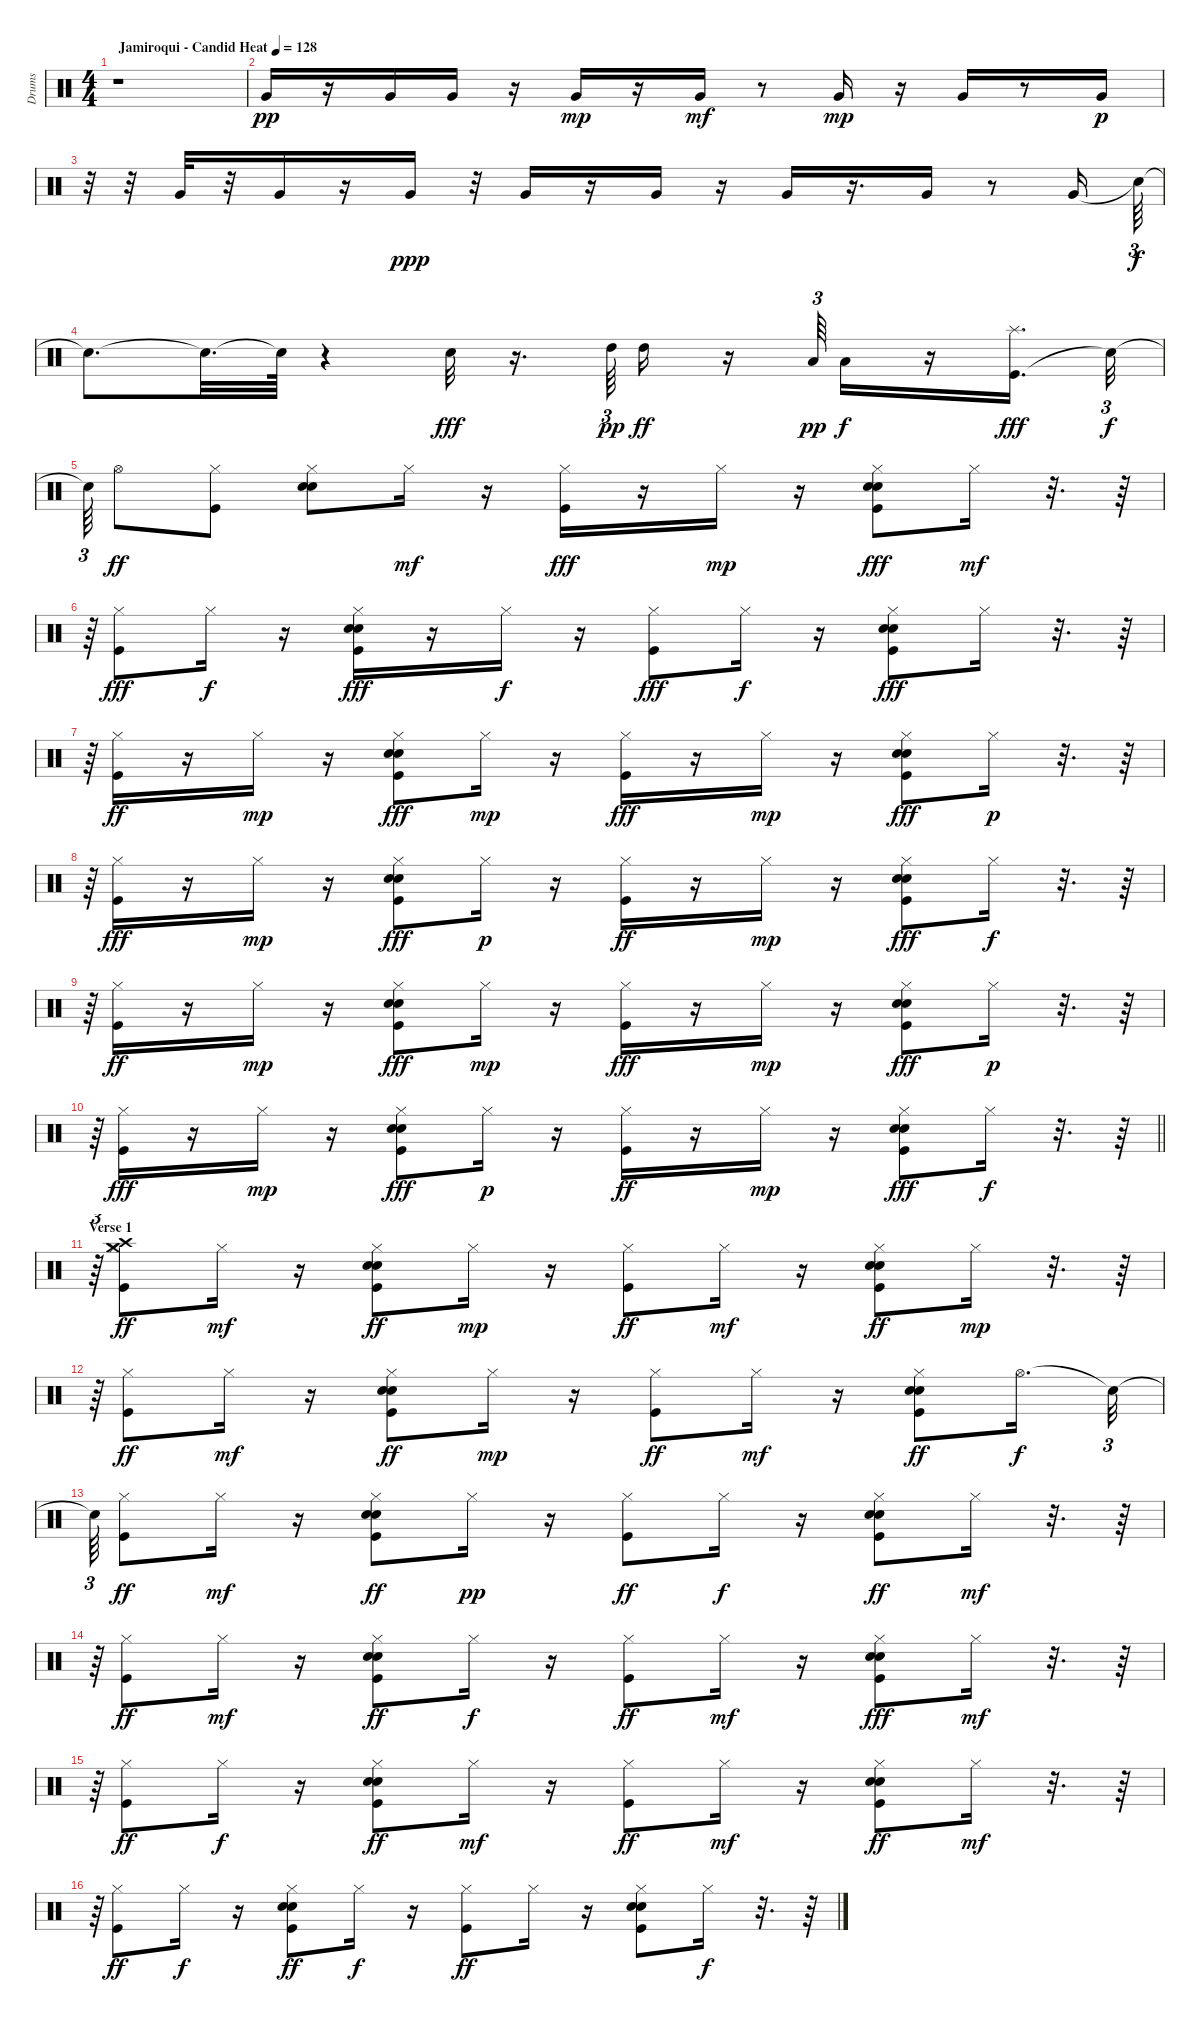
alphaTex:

\track ("Drums" "Drums") {instrument percussion}
\staff {score}
\articulation defaults
\ts (4 4)
\tempo (128 "Jamiroqui - Candid Heat")
\clef neutral
\ks c
r.1{dy pp} |
"Very Low Tom (hit)".16 r.16 "Very Low Tom (hit)".16 "Very Low Tom (hit)".16 r.16 "Very Low Tom (hit)".16{dy mp} r.16 "Very Low Tom (hit)".16{dy mf} r.8 "Very Low Tom (hit)".16{dy mp} r.16 "Very Low Tom (hit)".16 r.8 "Very Low Tom (hit)".16{dy p} |
r.32{tu (3 2)} r.32 "Very Low Tom (hit)".32 r.32 "Very Low Tom (hit)".16 r.16 "Very Low Tom (hit)".16{dy ppp} r.32 "Very Low Tom (hit)".16 r.16 "Very Low Tom (hit)".16 r.16 "Very Low Tom (hit)".16 r.16{d} "Very Low Tom (hit)".16 r.8 "Very Low Tom (hit)".16 "Snare (hit)"{t}.64{tu (3 2) dy f} |
"Snare (hit)"{t}.8{d} "Snare (hit)"{t}.32{d} "Snare (hit)"{t}.64 r.4 "Electric Snare (hit)".32{dy fff} r.16{d} "High Tom (hit)".64{tu (3 2) dy pp} "High Tom (hit)".16{dy ff} r.16 "Low Tom (hit)".64{tu (3 2) dy pp} "Low Tom (hit)".16{dy f} r.16 ("Kick (hit)" "Splash (hit)").16{d dy fff} "Snare (hit)"{t}.32{tu (3 2) dy f} |
"Snare (hit)"{t}.64{tu (3 2)} "Hi-Hat (open)".8{dy ff} ("Kick (hit)" "Hi-Hat (closed)").8 ("Electric Snare (hit)" "Hand Clap (hit)" "Hi-Hat (closed)").8 "Hi-Hat (closed)".16{dy mf} r.16 ("Kick (hit)" "Hi-Hat (closed)").16{dy fff} r.16 "Hi-Hat (closed)".16{dy mp} r.16 ("Kick (hit)" "Electric Snare (hit)" "Hand Clap (hit)" "Hi-Hat (closed)").8{dy fff} "Hi-Hat (closed)".16{dy mf} r.32{d} r.64 |
r.64{tu (3 2)} ("Kick (hit)" "Hi-Hat (closed)").8{dy fff} "Hi-Hat (closed)".16{dy f} r.16 ("Kick (hit)" "Electric Snare (hit)" "Hand Clap (hit)" "Hi-Hat (closed)").16{dy fff} r.16 "Hi-Hat (closed)".16{dy f} r.16 ("Kick (hit)" "Hi-Hat (closed)").8{dy fff} "Hi-Hat (closed)".16{dy f} r.16 ("Kick (hit)" "Electric Snare (hit)" "Hand Clap (hit)" "Hi-Hat (closed)").8{dy fff} "Hi-Hat (closed)".16 r.32{d} r.64 |
r.64{tu (3 2)} ("Kick (hit)" "Hi-Hat (closed)").16{dy ff} r.16 "Hi-Hat (closed)".16{dy mp} r.16 ("Kick (hit)" "Electric Snare (hit)" "Hand Clap (hit)" "Hi-Hat (closed)").8{dy fff} "Hi-Hat (closed)".16{dy mp} r.16 ("Kick (hit)" "Hi-Hat (closed)").16{dy fff} r.16 "Hi-Hat (closed)".16{dy mp} r.16 ("Kick (hit)" "Electric Snare (hit)" "Hand Clap (hit)" "Hi-Hat (closed)").8{dy fff} "Hi-Hat (closed)".16{dy p} r.32{d} r.64 |
r.64{tu (3 2)} ("Kick (hit)" "Hi-Hat (closed)").16{dy fff} r.16 "Hi-Hat (closed)".16{dy mp} r.16 ("Kick (hit)" "Electric Snare (hit)" "Hand Clap (hit)" "Hi-Hat (closed)").8{dy fff} "Hi-Hat (closed)".16{dy p} r.16 ("Kick (hit)" "Hi-Hat (closed)").16{dy ff} r.16 "Hi-Hat (closed)".16{dy mp} r.16 ("Kick (hit)" "Electric Snare (hit)" "Hand Clap (hit)" "Hi-Hat (closed)").8{dy fff} "Hi-Hat (closed)".16{dy f} r.32{d} r.64 |
r.64{tu (3 2)} ("Kick (hit)" "Hi-Hat (closed)").16{dy ff} r.16 "Hi-Hat (closed)".16{dy mp} r.16 ("Kick (hit)" "Electric Snare (hit)" "Hand Clap (hit)" "Hi-Hat (closed)").8{dy fff} "Hi-Hat (closed)".16{dy mp} r.16 ("Kick (hit)" "Hi-Hat (closed)").16{dy fff} r.16 "Hi-Hat (closed)".16{dy mp} r.16 ("Kick (hit)" "Electric Snare (hit)" "Hand Clap (hit)" "Hi-Hat (closed)").8{dy fff} "Hi-Hat (closed)".16{dy p} r.32{d} r.64 |
\barLineRight lightlight
r.64{tu (3 2)} ("Kick (hit)" "Hi-Hat (closed)").16{dy fff} r.16 "Hi-Hat (closed)".16{dy mp} r.16 ("Kick (hit)" "Electric Snare (hit)" "Hand Clap (hit)" "Hi-Hat (closed)").8{dy fff} "Hi-Hat (closed)".16{dy p} r.16 ("Kick (hit)" "Hi-Hat (closed)").16{dy ff} r.16 "Hi-Hat (closed)".16{dy mp} r.16 ("Kick (hit)" "Electric Snare (hit)" "Hand Clap (hit)" "Hi-Hat (closed)").8{dy fff} "Hi-Hat (closed)".16{dy f} r.32{d} r.64 |
\section ("" "Verse 1")
r.64{tu (3 2)} ("Kick (hit)" "Hi-Hat (closed)" "Crash medium (hit)" "Crash high (hit)").8{dy ff} "Hi-Hat (closed)".16{dy mf} r.16 ("Kick (hit)" "Electric Snare (hit)" "Hand Clap (hit)" "Hi-Hat (closed)").8{dy ff} "Hi-Hat (closed)".16{dy mp} r.16 ("Kick (hit)" "Hi-Hat (closed)").8{dy ff} "Hi-Hat (closed)".16{dy mf} r.16 ("Kick (hit)" "Electric Snare (hit)" "Hand Clap (hit)" "Hi-Hat (closed)").8{dy ff} "Hi-Hat (closed)".16{dy mp} r.32{d} r.64 |
r.64{tu (3 2)} ("Kick (hit)" "Hi-Hat (closed)").8{dy ff} "Hi-Hat (closed)".16{dy mf} r.16 ("Kick (hit)" "Electric Snare (hit)" "Hand Clap (hit)" "Hi-Hat (closed)").8{dy ff} "Hi-Hat (closed)".16{dy mp} r.16 ("Kick (hit)" "Hi-Hat (closed)").8{dy ff} "Hi-Hat (closed)".16{dy mf} r.16 ("Kick (hit)" "Electric Snare (hit)" "Hand Clap (hit)" "Hi-Hat (closed)").8{dy ff} "Hi-Hat (open)".16{d dy f} "Snare (hit)"{t}.32{tu (3 2)} |
"Snare (hit)"{t}.64{tu (3 2)} ("Kick (hit)" "Hi-Hat (closed)").8{dy ff} "Hi-Hat (closed)".16{dy mf} r.16 ("Kick (hit)" "Electric Snare (hit)" "Hand Clap (hit)" "Hi-Hat (closed)").8{dy ff} "Hi-Hat (closed)".16{dy pp} r.16 ("Kick (hit)" "Hi-Hat (closed)").8{dy ff} "Hi-Hat (closed)".16{dy f} r.16 ("Kick (hit)" "Electric Snare (hit)" "Hand Clap (hit)" "Hi-Hat (closed)").8{dy ff} "Hi-Hat (closed)".16{dy mf} r.32{d} r.64 |
r.64{tu (3 2)} ("Kick (hit)" "Hi-Hat (closed)").8{dy ff} "Hi-Hat (closed)".16{dy mf} r.16 ("Kick (hit)" "Electric Snare (hit)" "Hand Clap (hit)" "Hi-Hat (closed)").8{dy ff} "Hi-Hat (closed)".16{dy f} r.16 ("Kick (hit)" "Hi-Hat (closed)").8{dy ff} "Hi-Hat (closed)".16{dy mf} r.16 ("Kick (hit)" "Electric Snare (hit)" "Hand Clap (hit)" "Hi-Hat (closed)").8{dy fff} "Hi-Hat (closed)".16{dy mf} r.32{d} r.64 |
r.64{tu (3 2)} ("Kick (hit)" "Hi-Hat (closed)").8{dy ff} "Hi-Hat (closed)".16{dy f} r.16 ("Kick (hit)" "Electric Snare (hit)" "Hand Clap (hit)" "Hi-Hat (closed)").8{dy ff} "Hi-Hat (closed)".16{dy mf} r.16 ("Kick (hit)" "Hi-Hat (closed)").8{dy ff} "Hi-Hat (closed)".16{dy mf} r.16 ("Kick (hit)" "Electric Snare (hit)" "Hand Clap (hit)" "Hi-Hat (closed)").8{dy ff} "Hi-Hat (closed)".16{dy mf} r.32{d} r.64 |
r.64{tu (3 2)} ("Kick (hit)" "Hi-Hat (closed)").8{dy ff} "Hi-Hat (closed)".16{dy f} r.16 ("Kick (hit)" "Electric Snare (hit)" "Hand Clap (hit)" "Hi-Hat (closed)").8{dy ff} "Hi-Hat (closed)".16{dy f} r.16 ("Kick (hit)" "Hi-Hat (closed)").8{dy ff} "Hi-Hat (closed)".16 r.16 ("Kick (hit)" "Electric Snare (hit)" "Hand Clap (hit)" "Hi-Hat (closed)").8 "Hi-Hat (closed)".16{dy f} r.32{d} r.64
